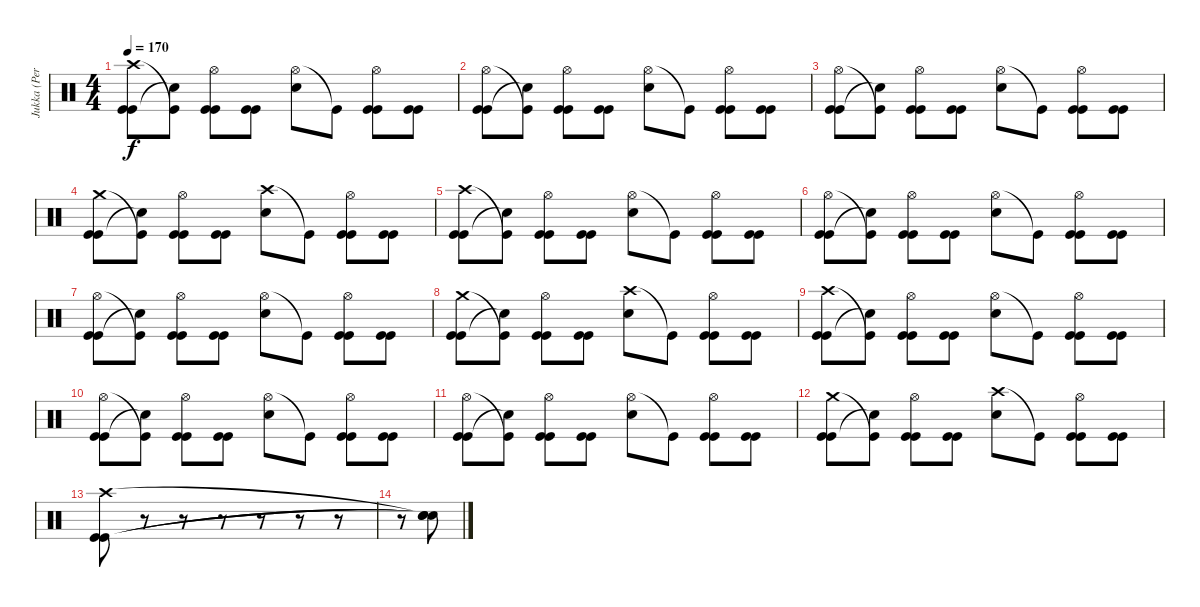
\track ("Jukka (Percussion)" "Jukka (Per") {instrument percussion}
\staff {score}
\articulation defaults
\ts (4 4)
\tempo 170
\clef neutral
\ks c
("Crash high (hit)" "Kick (hit)" "Kick (hit)").8{dy f} ("Kick (hit)"{t} "Snare (hit)"{t}).8 ("Hi-Hat (open)" "Kick (hit)" "Kick (hit)").8 ("Kick (hit)" "Kick (hit)").8 ("Hi-Hat (open)" "Snare (hit) 2").8 "Kick (hit)"{t}.8 ("Hi-Hat (open)" "Kick (hit)" "Kick (hit)").8 ("Kick (hit)" "Kick (hit)").8 |
("Hi-Hat (open)" "Kick (hit)" "Kick (hit)").8 ("Kick (hit)"{t} "Snare (hit)"{t}).8 ("Hi-Hat (open)" "Kick (hit)" "Kick (hit)").8 ("Kick (hit)" "Kick (hit)").8 ("Hi-Hat (open)" "Snare (hit) 2").8 "Kick (hit)"{t}.8 ("Hi-Hat (open)" "Kick (hit)" "Kick (hit)").8 ("Kick (hit)" "Kick (hit)").8 |
("Hi-Hat (open)" "Kick (hit)" "Kick (hit)").8 ("Kick (hit)"{t} "Snare (hit)"{t}).8 ("Hi-Hat (open)" "Kick (hit)" "Kick (hit)").8 ("Kick (hit)" "Kick (hit)").8 ("Hi-Hat (open)" "Snare (hit) 2").8 "Kick (hit)"{t}.8 ("Hi-Hat (open)" "Kick (hit)" "Kick (hit)").8 ("Kick (hit)" "Kick (hit)").8 |
("Crash medium (hit)" "Kick (hit)" "Kick (hit)").8 ("Kick (hit)"{t} "Snare (hit)"{t}).8 ("Hi-Hat (open)" "Kick (hit)" "Kick (hit)").8 ("Kick (hit)" "Kick (hit)").8 ("Crash high (hit)" "Snare (hit) 2").8 "Kick (hit)"{t}.8 ("Hi-Hat (open)" "Kick (hit)" "Kick (hit)").8 ("Kick (hit)" "Kick (hit)").8 |
("Crash high (hit)" "Kick (hit)" "Kick (hit)").8 ("Kick (hit)"{t} "Snare (hit)"{t}).8 ("Hi-Hat (open)" "Kick (hit)" "Kick (hit)").8 ("Kick (hit)" "Kick (hit)").8 ("Hi-Hat (open)" "Snare (hit) 2").8 "Kick (hit)"{t}.8 ("Hi-Hat (open)" "Kick (hit)" "Kick (hit)").8 ("Kick (hit)" "Kick (hit)").8 |
("Hi-Hat (open)" "Kick (hit)" "Kick (hit)").8 ("Kick (hit)"{t} "Snare (hit)"{t}).8 ("Hi-Hat (open)" "Kick (hit)" "Kick (hit)").8 ("Kick (hit)" "Kick (hit)").8 ("Hi-Hat (open)" "Snare (hit) 2").8 "Kick (hit)"{t}.8 ("Hi-Hat (open)" "Kick (hit)" "Kick (hit)").8 ("Kick (hit)" "Kick (hit)").8 |
("Hi-Hat (open)" "Kick (hit)" "Kick (hit)").8 ("Kick (hit)"{t} "Snare (hit)"{t}).8 ("Hi-Hat (open)" "Kick (hit)" "Kick (hit)").8 ("Kick (hit)" "Kick (hit)").8 ("Hi-Hat (open)" "Snare (hit) 2").8 "Kick (hit)"{t}.8 ("Hi-Hat (open)" "Kick (hit)" "Kick (hit)").8 ("Kick (hit)" "Kick (hit)").8 |
("Crash medium (hit)" "Kick (hit)" "Kick (hit)").8 ("Kick (hit)"{t} "Snare (hit)"{t}).8 ("Hi-Hat (open)" "Kick (hit)" "Kick (hit)").8 ("Kick (hit)" "Kick (hit)").8 ("Crash high (hit)" "Snare (hit) 2").8 "Kick (hit)"{t}.8 ("Hi-Hat (open)" "Kick (hit)" "Kick (hit)").8 ("Kick (hit)" "Kick (hit)").8 |
("Crash high (hit)" "Kick (hit)" "Kick (hit)").8 ("Kick (hit)"{t} "Snare (hit)"{t}).8 ("Hi-Hat (open)" "Kick (hit)" "Kick (hit)").8 ("Kick (hit)" "Kick (hit)").8 ("Hi-Hat (open)" "Snare (hit) 2").8 "Kick (hit)"{t}.8 ("Hi-Hat (open)" "Kick (hit)" "Kick (hit)").8 ("Kick (hit)" "Kick (hit)").8 |
("Hi-Hat (open)" "Kick (hit)" "Kick (hit)").8 ("Kick (hit)"{t} "Snare (hit)"{t}).8 ("Hi-Hat (open)" "Kick (hit)" "Kick (hit)").8 ("Kick (hit)" "Kick (hit)").8 ("Hi-Hat (open)" "Snare (hit) 2").8 "Kick (hit)"{t}.8 ("Hi-Hat (open)" "Kick (hit)" "Kick (hit)").8 ("Kick (hit)" "Kick (hit)").8 |
("Hi-Hat (open)" "Kick (hit)" "Kick (hit)").8 ("Kick (hit)"{t} "Snare (hit)"{t}).8 ("Hi-Hat (open)" "Kick (hit)" "Kick (hit)").8 ("Kick (hit)" "Kick (hit)").8 ("Hi-Hat (open)" "Snare (hit) 2").8 "Kick (hit)"{t}.8 ("Hi-Hat (open)" "Kick (hit)" "Kick (hit)").8 ("Kick (hit)" "Kick (hit)").8 |
("Crash medium (hit)" "Kick (hit)" "Kick (hit)").8 ("Kick (hit)"{t} "Snare (hit)"{t}).8 ("Hi-Hat (open)" "Kick (hit)" "Kick (hit)").8 ("Kick (hit)" "Kick (hit)").8 ("Crash high (hit)" "Snare (hit) 2").8 "Kick (hit)"{t}.8 ("Hi-Hat (open)" "Kick (hit)" "Kick (hit)").8 ("Kick (hit)" "Kick (hit)").8 |
("Crash high (hit)" "Kick (hit)" "Kick (hit)").8 r.8 r.8 r.8 r.8 r.8 r.8 |
r.8 ("Snare (hit)"{t} "Snare (hit)"{t} "Snare (hit)"{t}).8
